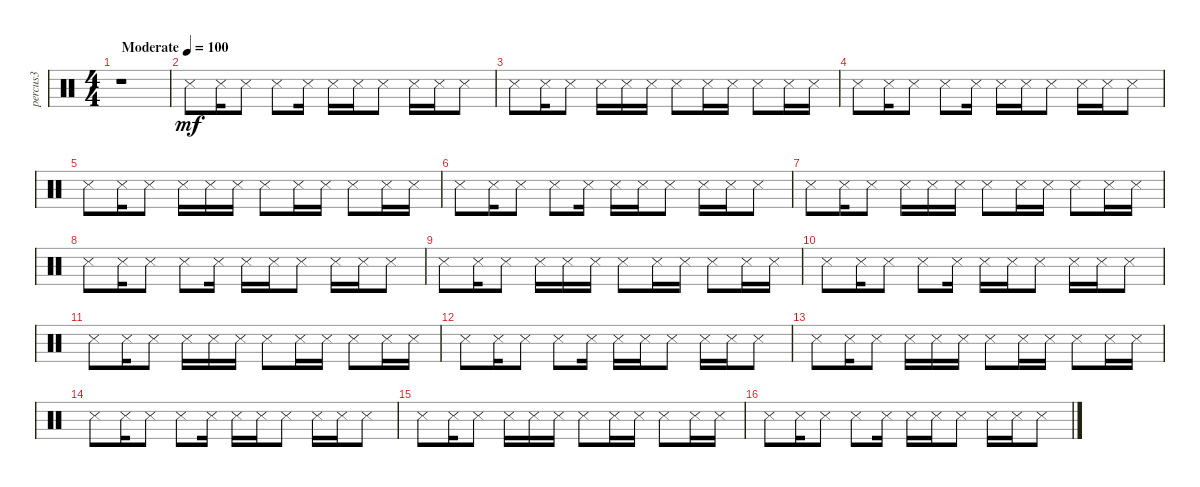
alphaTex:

\track ("percus3" "percus3") {instrument percussion}
\staff {score}
\articulation defaults
\ts (4 4)
\tempo (100 "Moderate")
\clef neutral
\ks c
r.1{dy mf} |
"Metronome (hit)".8 "Metronome (hit)".16 "Metronome (hit)".8 "Metronome (hit)".8 "Metronome (hit)".16 "Metronome (hit)".16 "Metronome (hit)".16 "Metronome (hit)".8 "Metronome (hit)".16 "Metronome (hit)".16 "Metronome (hit)".8 |
"Metronome (hit)".8 "Metronome (hit)".16 "Metronome (hit)".8 "Metronome (hit)".16 "Metronome (hit)".16 "Metronome (hit)".16 "Metronome (hit)".8 "Metronome (hit)".16 "Metronome (hit)".16 "Metronome (hit)".8 "Metronome (hit)".16 "Metronome (hit)".16 |
"Metronome (hit)".8 "Metronome (hit)".16 "Metronome (hit)".8 "Metronome (hit)".8 "Metronome (hit)".16 "Metronome (hit)".16 "Metronome (hit)".16 "Metronome (hit)".8 "Metronome (hit)".16 "Metronome (hit)".16 "Metronome (hit)".8 |
"Metronome (hit)".8 "Metronome (hit)".16 "Metronome (hit)".8 "Metronome (hit)".16 "Metronome (hit)".16 "Metronome (hit)".16 "Metronome (hit)".8 "Metronome (hit)".16 "Metronome (hit)".16 "Metronome (hit)".8 "Metronome (hit)".16 "Metronome (hit)".16 |
"Metronome (hit)".8 "Metronome (hit)".16 "Metronome (hit)".8 "Metronome (hit)".8 "Metronome (hit)".16 "Metronome (hit)".16 "Metronome (hit)".16 "Metronome (hit)".8 "Metronome (hit)".16 "Metronome (hit)".16 "Metronome (hit)".8 |
"Metronome (hit)".8 "Metronome (hit)".16 "Metronome (hit)".8 "Metronome (hit)".16 "Metronome (hit)".16 "Metronome (hit)".16 "Metronome (hit)".8 "Metronome (hit)".16 "Metronome (hit)".16 "Metronome (hit)".8 "Metronome (hit)".16 "Metronome (hit)".16 |
"Metronome (hit)".8 "Metronome (hit)".16 "Metronome (hit)".8 "Metronome (hit)".8 "Metronome (hit)".16 "Metronome (hit)".16 "Metronome (hit)".16 "Metronome (hit)".8 "Metronome (hit)".16 "Metronome (hit)".16 "Metronome (hit)".8 |
"Metronome (hit)".8 "Metronome (hit)".16 "Metronome (hit)".8 "Metronome (hit)".16 "Metronome (hit)".16 "Metronome (hit)".16 "Metronome (hit)".8 "Metronome (hit)".16 "Metronome (hit)".16 "Metronome (hit)".8 "Metronome (hit)".16 "Metronome (hit)".16 |
"Metronome (hit)".8 "Metronome (hit)".16 "Metronome (hit)".8 "Metronome (hit)".8 "Metronome (hit)".16 "Metronome (hit)".16 "Metronome (hit)".16 "Metronome (hit)".8 "Metronome (hit)".16 "Metronome (hit)".16 "Metronome (hit)".8 |
"Metronome (hit)".8 "Metronome (hit)".16 "Metronome (hit)".8 "Metronome (hit)".16 "Metronome (hit)".16 "Metronome (hit)".16 "Metronome (hit)".8 "Metronome (hit)".16 "Metronome (hit)".16 "Metronome (hit)".8 "Metronome (hit)".16 "Metronome (hit)".16 |
"Metronome (hit)".8 "Metronome (hit)".16 "Metronome (hit)".8 "Metronome (hit)".8 "Metronome (hit)".16 "Metronome (hit)".16 "Metronome (hit)".16 "Metronome (hit)".8 "Metronome (hit)".16 "Metronome (hit)".16 "Metronome (hit)".8 |
"Metronome (hit)".8 "Metronome (hit)".16 "Metronome (hit)".8 "Metronome (hit)".16 "Metronome (hit)".16 "Metronome (hit)".16 "Metronome (hit)".8 "Metronome (hit)".16 "Metronome (hit)".16 "Metronome (hit)".8 "Metronome (hit)".16 "Metronome (hit)".16 |
"Metronome (hit)".8 "Metronome (hit)".16 "Metronome (hit)".8 "Metronome (hit)".8 "Metronome (hit)".16 "Metronome (hit)".16 "Metronome (hit)".16 "Metronome (hit)".8 "Metronome (hit)".16 "Metronome (hit)".16 "Metronome (hit)".8 |
"Metronome (hit)".8 "Metronome (hit)".16 "Metronome (hit)".8 "Metronome (hit)".16 "Metronome (hit)".16 "Metronome (hit)".16 "Metronome (hit)".8 "Metronome (hit)".16 "Metronome (hit)".16 "Metronome (hit)".8 "Metronome (hit)".16 "Metronome (hit)".16 |
"Metronome (hit)".8 "Metronome (hit)".16 "Metronome (hit)".8 "Metronome (hit)".8 "Metronome (hit)".16 "Metronome (hit)".16 "Metronome (hit)".16 "Metronome (hit)".8 "Metronome (hit)".16 "Metronome (hit)".16 "Metronome (hit)".8
